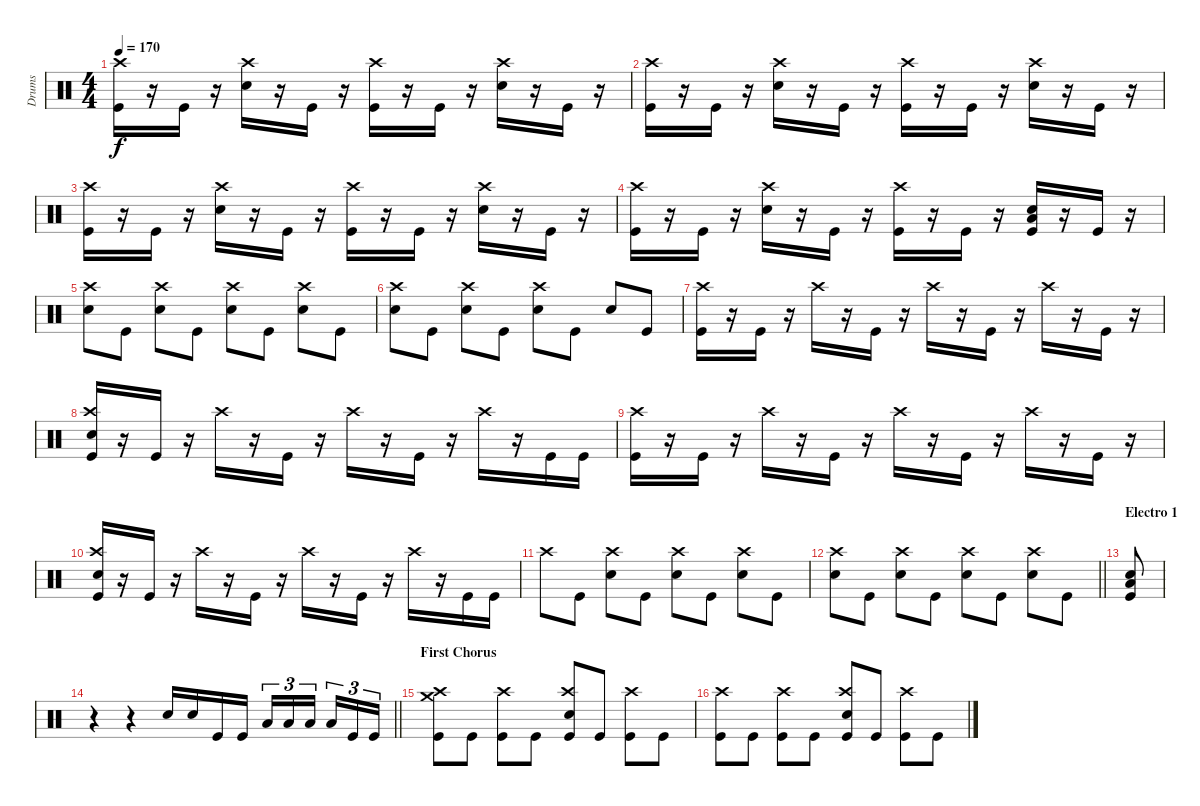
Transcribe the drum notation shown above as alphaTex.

\track ("Drums" "Drums") {instrument percussion}
\staff {score}
\articulation defaults
\ts (4 4)
\tempo 170
\clef neutral
\ks c
("Kick (hit)" "Crash high (hit)").16{dy f} r.16 "Kick (hit)".16 r.16 ("Snare (hit) 2" "Crash high (hit)").16 r.16 "Kick (hit)".16 r.16 ("Kick (hit)" "Crash high (hit)").16 r.16 "Kick (hit)".16 r.16 ("Snare (hit) 2" "Crash high (hit)").16 r.16 "Kick (hit)".16 r.16 |
("Kick (hit)" "Crash high (hit)").16 r.16 "Kick (hit)".16 r.16 ("Snare (hit) 2" "Crash high (hit)").16 r.16 "Kick (hit)".16 r.16 ("Kick (hit)" "Crash high (hit)").16 r.16 "Kick (hit)".16 r.16 ("Snare (hit) 2" "Crash high (hit)").16 r.16 "Kick (hit)".16 r.16 |
("Kick (hit)" "Crash high (hit)").16 r.16 "Kick (hit)".16 r.16 ("Snare (hit) 2" "Crash high (hit)").16 r.16 "Kick (hit)".16 r.16 ("Kick (hit)" "Crash high (hit)").16 r.16 "Kick (hit)".16 r.16 ("Snare (hit) 2" "Crash high (hit)").16 r.16 "Kick (hit)".16 r.16 |
("Kick (hit)" "Crash high (hit)").16 r.16 "Kick (hit)".16 r.16 ("Snare (hit) 2" "Crash high (hit)").16 r.16 "Kick (hit)".16 r.16 ("Kick (hit)" "Crash high (hit)").16 r.16 "Kick (hit)".16 r.16 ("Kick (hit)" "Snare (hit) 2" "Low Tom (hit)").16 r.16 "Kick (hit)".16 r.16 |
("Snare (hit) 2" "Crash high (hit)").8 "Kick (hit)".8 ("Snare (hit) 2" "Crash high (hit)").8 "Kick (hit)".8 ("Snare (hit) 2" "Crash high (hit)").8 "Kick (hit)".8 ("Snare (hit) 2" "Crash high (hit)").8 "Kick (hit)".8 |
("Snare (hit) 2" "Crash high (hit)").8 "Kick (hit)".8 ("Snare (hit) 2" "Crash high (hit)").8 "Kick (hit)".8 ("Snare (hit) 2" "Crash high (hit)").8 "Kick (hit)".8 "Snare (hit) 2".8 "Kick (hit)".8 |
("Kick (hit)" "Crash high (hit)").16 r.16 "Kick (hit)".16 r.16 "Crash high (hit)".16 r.16 "Kick (hit)".16 r.16 "Crash high (hit)".16 r.16 "Kick (hit)".16 r.16 "Crash high (hit)".16 r.16 "Kick (hit)".16 r.16 |
("Kick (hit)" "Snare (hit) 2" "Crash high (hit)").16 r.16 "Kick (hit)".16 r.16 "Crash high (hit)".16 r.16 "Kick (hit)".16 r.16 "Crash high (hit)".16 r.16 "Kick (hit)".16 r.16 "Crash high (hit)".16 r.16 "Kick (hit)".16 "Kick (hit)".16 |
("Kick (hit)" "Crash high (hit)").16 r.16 "Kick (hit)".16 r.16 "Crash high (hit)".16 r.16 "Kick (hit)".16 r.16 "Crash high (hit)".16 r.16 "Kick (hit)".16 r.16 "Crash high (hit)".16 r.16 "Kick (hit)".16 r.16 |
("Kick (hit)" "Snare (hit) 2" "Crash high (hit)").16 r.16 "Kick (hit)".16 r.16 "Crash high (hit)".16 r.16 "Kick (hit)".16 r.16 "Crash high (hit)".16 r.16 "Kick (hit)".16 r.16 "Crash high (hit)".16 r.16 "Kick (hit)".16 "Kick (hit)".16 |
"Crash high (hit)".8 "Kick (hit)".8 ("Snare (hit) 2" "Crash high (hit)").8 "Kick (hit)".8 ("Snare (hit) 2" "Crash high (hit)").8 "Kick (hit)".8 ("Snare (hit) 2" "Crash high (hit)").8 "Kick (hit)".8 |
\barLineRight lightlight
("Snare (hit) 2" "Crash high (hit)").8 "Kick (hit)".8 ("Snare (hit) 2" "Crash high (hit)").8 "Kick (hit)".8 ("Snare (hit) 2" "Crash high (hit)").8 "Kick (hit)".8 ("Snare (hit) 2" "Crash high (hit)").8 "Kick (hit)".8 |
\section ("" "Electro 1")
("Kick (hit)" "Low Tom (hit)" "Snare (hit) 2").8 |
\barLineRight lightlight
r.4 r.4 "Snare (hit) 2".16 "Snare (hit) 2".16 "Kick (hit)".16 "Kick (hit)".16 "Low Tom (hit)".16{tu (3 2)} "Low Tom (hit)".16{tu (3 2)} "Low Tom (hit)".16{tu (3 2) beam splitsecondary} "Low Tom (hit)".16{tu (3 2)} "Kick (hit)".16{tu (3 2)} "Kick (hit)".16{tu (3 2)} |
\section ("" "First Chorus")
("Kick (hit)" "Crash high (hit)" "Crash medium (hit)").8 "Kick (hit)".8 ("Kick (hit)" "Crash high (hit)").8 "Kick (hit)".8 ("Kick (hit)" "Snare (hit) 2" "Crash high (hit)").8 "Kick (hit)".8 ("Kick (hit)" "Crash high (hit)").8 "Kick (hit)".8 |
("Kick (hit)" "Crash high (hit)").8 "Kick (hit)".8 ("Kick (hit)" "Crash high (hit)").8 "Kick (hit)".8 ("Kick (hit)" "Snare (hit) 2" "Crash high (hit)").8 "Kick (hit)".8 ("Kick (hit)" "Crash high (hit)").8 "Kick (hit)".8
